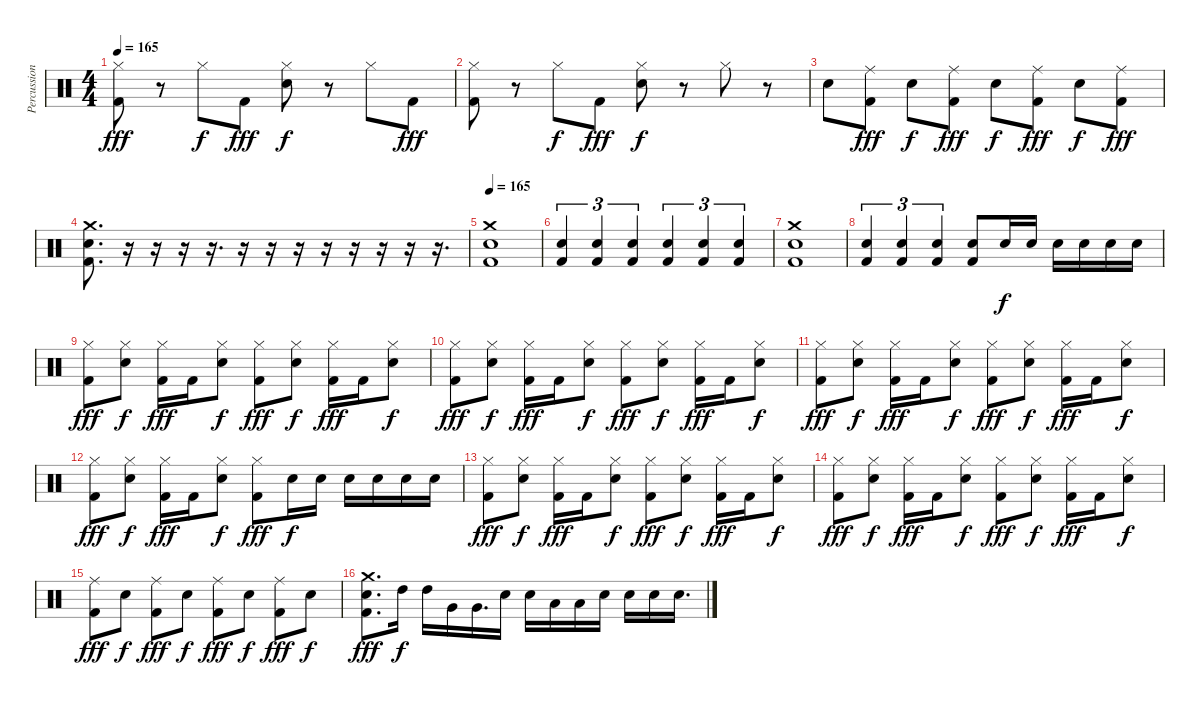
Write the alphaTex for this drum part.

\track ("Percussion" "Percussion") {instrument percussion}
\staff {score}
\articulation defaults
\ts (4 4)
\tempo 165
\clef neutral
\ks c
("Hi-Hat (closed)" "Kick (hit) 2").8{dy fff} r.8 "Hi-Hat (closed)".8{dy f} "Kick (hit) 2".8{dy fff} ("Hi-Hat (closed)" "Electric Snare (hit)").8{dy f} r.8 "Hi-Hat (closed)".8 "Kick (hit) 2".8{dy fff} |
("Hi-Hat (closed)" "Kick (hit) 2").8 r.8 "Hi-Hat (closed)".8{dy f} "Kick (hit) 2".8{dy fff} ("Hi-Hat (closed)" "Electric Snare (hit)").8{dy f} r.8 "Hi-Hat (closed)".8 r.8 |
"Electric Snare (hit)".8 ("Ride (middle)" "Kick (hit) 2").8{dy fff} "Electric Snare (hit)".8{dy f} ("Ride (middle)" "Kick (hit) 2").8{dy fff} "Electric Snare (hit)".8{dy f} ("Ride (middle)" "Kick (hit) 2").8{dy fff} "Electric Snare (hit)".8{dy f} ("Ride (middle)" "Kick (hit) 2").8{dy fff} |
("Crash medium (hit)" "Electric Snare (hit)" "Kick (hit) 2").8{d} r.16 r.16 r.16 r.16{d} r.16 r.16 r.16 r.16 r.16 r.16 r.16 r.16{d} |
\tempo 165
("Crash medium (hit)" "Electric Snare (hit)" "Kick (hit) 2").1 |
("Electric Snare (hit)" "Kick (hit) 2").4{tu (3 2)} ("Electric Snare (hit)" "Kick (hit) 2").4{tu (3 2)} ("Electric Snare (hit)" "Kick (hit) 2").4{tu (3 2)} ("Electric Snare (hit)" "Kick (hit) 2").4{tu (3 2)} ("Electric Snare (hit)" "Kick (hit) 2").4{tu (3 2)} ("Electric Snare (hit)" "Kick (hit) 2").4{tu (3 2)} |
("Crash medium (hit)" "Electric Snare (hit)" "Kick (hit) 2").1 |
("Electric Snare (hit)" "Kick (hit) 2").4{tu (3 2)} ("Electric Snare (hit)" "Kick (hit) 2").4{tu (3 2)} ("Electric Snare (hit)" "Kick (hit) 2").4{tu (3 2)} ("Electric Snare (hit)" "Kick (hit) 2").8 "Electric Snare (hit)".16{dy f} "Electric Snare (hit)".16 "Electric Snare (hit)".16 "Electric Snare (hit)".16 "Electric Snare (hit)".16 "Electric Snare (hit)".16 |
("Hi-Hat (closed)" "Kick (hit) 2").8{dy fff} ("Hi-Hat (closed)" "Electric Snare (hit)").8{dy f} ("Hi-Hat (closed)" "Kick (hit) 2").16{dy fff} "Kick (hit) 2".16 ("Hi-Hat (closed)" "Electric Snare (hit)").8{dy f} ("Hi-Hat (closed)" "Kick (hit) 2").8{dy fff} ("Hi-Hat (closed)" "Electric Snare (hit)").8{dy f} ("Hi-Hat (closed)" "Kick (hit) 2").16{dy fff} "Kick (hit) 2".16 ("Hi-Hat (closed)" "Electric Snare (hit)").8{dy f} |
("Hi-Hat (closed)" "Kick (hit) 2").8{dy fff} ("Hi-Hat (closed)" "Electric Snare (hit)").8{dy f} ("Hi-Hat (closed)" "Kick (hit) 2").16{dy fff} "Kick (hit) 2".16 ("Hi-Hat (closed)" "Electric Snare (hit)").8{dy f} ("Hi-Hat (closed)" "Kick (hit) 2").8{dy fff} ("Hi-Hat (closed)" "Electric Snare (hit)").8{dy f} ("Hi-Hat (closed)" "Kick (hit) 2").16{dy fff} "Kick (hit) 2".16 ("Hi-Hat (closed)" "Electric Snare (hit)").8{dy f} |
("Hi-Hat (closed)" "Kick (hit) 2").8{dy fff} ("Hi-Hat (closed)" "Electric Snare (hit)").8{dy f} ("Hi-Hat (closed)" "Kick (hit) 2").16{dy fff} "Kick (hit) 2".16 ("Hi-Hat (closed)" "Electric Snare (hit)").8{dy f} ("Hi-Hat (closed)" "Kick (hit) 2").8{dy fff} ("Hi-Hat (closed)" "Electric Snare (hit)").8{dy f} ("Hi-Hat (closed)" "Kick (hit) 2").16{dy fff} "Kick (hit) 2".16 ("Hi-Hat (closed)" "Electric Snare (hit)").8{dy f} |
("Hi-Hat (closed)" "Kick (hit) 2").8{dy fff} ("Hi-Hat (closed)" "Electric Snare (hit)").8{dy f} ("Hi-Hat (closed)" "Kick (hit) 2").16{dy fff} "Kick (hit) 2".16 ("Hi-Hat (closed)" "Electric Snare (hit)").8{dy f} ("Hi-Hat (closed)" "Kick (hit) 2").8{dy fff} "Electric Snare (hit)".16{dy f} "Electric Snare (hit)".16 "Electric Snare (hit)".16 "Electric Snare (hit)".16 "Electric Snare (hit)".16 "Electric Snare (hit)".16 |
("Hi-Hat (closed)" "Kick (hit) 2").8{dy fff} ("Hi-Hat (closed)" "Electric Snare (hit)").8{dy f} ("Hi-Hat (closed)" "Kick (hit) 2").16{dy fff} "Kick (hit) 2".16 ("Hi-Hat (closed)" "Electric Snare (hit)").8{dy f} ("Hi-Hat (closed)" "Kick (hit) 2").8{dy fff} ("Hi-Hat (closed)" "Electric Snare (hit)").8{dy f} ("Hi-Hat (closed)" "Kick (hit) 2").16{dy fff} "Kick (hit) 2".16 ("Hi-Hat (closed)" "Electric Snare (hit)").8{dy f} |
("Hi-Hat (closed)" "Kick (hit) 2").8{dy fff} ("Hi-Hat (closed)" "Electric Snare (hit)").8{dy f} ("Hi-Hat (closed)" "Kick (hit) 2").16{dy fff} "Kick (hit) 2".16 ("Hi-Hat (closed)" "Electric Snare (hit)").8{dy f} ("Hi-Hat (closed)" "Kick (hit) 2").8{dy fff} ("Hi-Hat (closed)" "Electric Snare (hit)").8{dy f} ("Hi-Hat (closed)" "Kick (hit) 2").16{dy fff} "Kick (hit) 2".16 ("Hi-Hat (closed)" "Electric Snare (hit)").8{dy f} |
("Ride (middle)" "Kick (hit) 2").8{dy fff} "Electric Snare (hit)".8{dy f} ("Ride (middle)" "Kick (hit) 2").8{dy fff} "Electric Snare (hit)".8{dy f} ("Ride (middle)" "Kick (hit) 2").8{dy fff} "Electric Snare (hit)".8{dy f} ("Ride (middle)" "Kick (hit) 2").8{dy fff} "Electric Snare (hit)".8{dy f} |
("Crash medium (hit)" "Electric Snare (hit)" "Kick (hit) 2").8{d dy fff} "High Tom (hit)".16{dy f} "High Tom (hit)".16 "Very Low Tom (hit)".16 "Very Low Tom (hit)".16{d} "Electric Snare (hit)".16 "Electric Snare (hit)".16 "Low Tom (hit)".16 "Low Tom (hit)".16 "Electric Snare (hit)".16 "Electric Snare (hit)".16 "Electric Snare (hit)".16 "Electric Snare (hit)".16{d}
